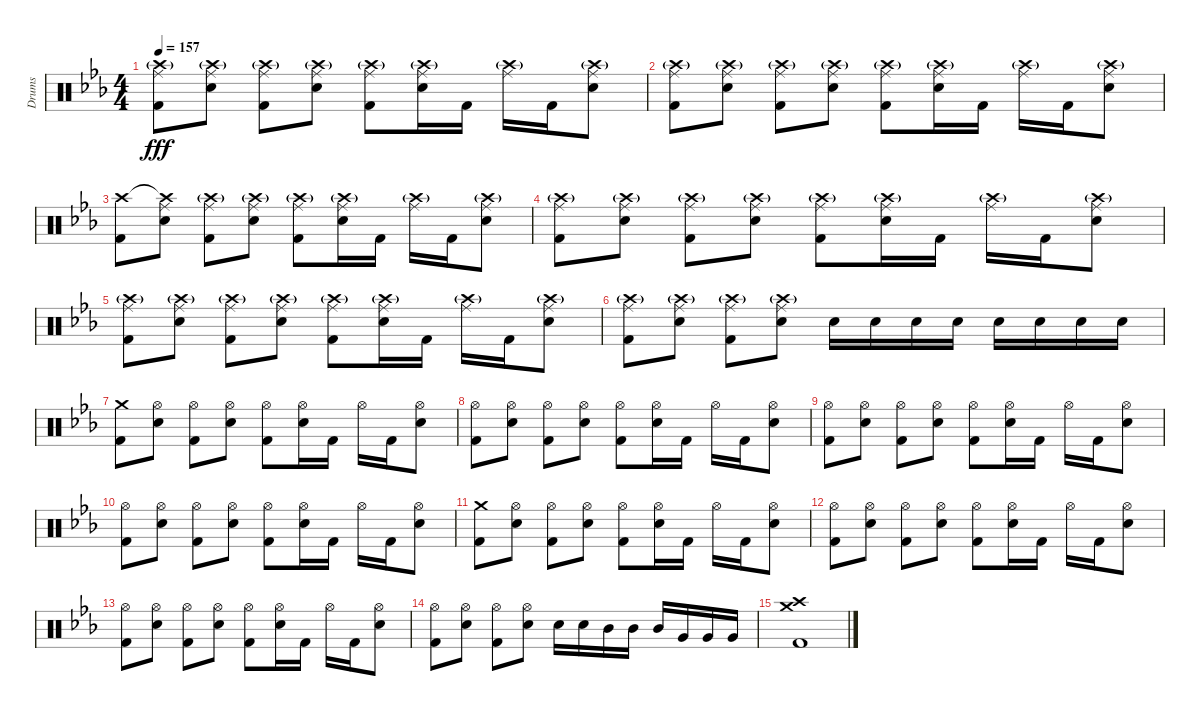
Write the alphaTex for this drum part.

\track ("Drums" "Drums") {instrument percussion}
\staff {score}
\articulation defaults
\ts (4 4)
\tempo 157
\clef neutral
\ks eb
("Crash high (hit)"{g} "Ride (middle)" "Kick (hit) 2").8{dy fff} ("Crash high (hit)"{g} "Ride (middle)" "Snare (hit) 2").8 ("Crash high (hit)"{g} "Ride (middle)" "Kick (hit) 2").8 ("Crash high (hit)"{g} "Ride (middle)" "Snare (hit) 2").8 ("Crash high (hit)"{g} "Ride (middle)" "Kick (hit) 2").8 ("Crash high (hit)"{g} "Ride (middle)" "Snare (hit) 2").16 "Kick (hit) 2".16 ("Crash high (hit)"{g} "Ride (middle)").16 "Kick (hit) 2".16 ("Crash high (hit)"{g} "Ride (middle)" "Snare (hit) 2").8 |
("Crash high (hit)"{g} "Ride (middle)" "Kick (hit) 2").8 ("Crash high (hit)"{g} "Ride (middle)" "Snare (hit) 2").8 ("Crash high (hit)"{g} "Ride (middle)" "Kick (hit) 2").8 ("Crash high (hit)"{g} "Ride (middle)" "Snare (hit) 2").8 ("Crash high (hit)"{g} "Ride (middle)" "Kick (hit) 2").8 ("Crash high (hit)"{g} "Ride (middle)" "Snare (hit) 2").16 "Kick (hit) 2".16 ("Crash high (hit)"{g} "Ride (middle)").16 "Kick (hit) 2".16 ("Crash high (hit)"{g} "Ride (middle)" "Snare (hit) 2").8 |
("Crash high (hit)" "Kick (hit) 2").8 ("Crash high (hit)"{t} "Ride (middle)" "Snare (hit) 2").8 ("Crash high (hit)"{g} "Ride (middle)" "Kick (hit) 2").8 ("Crash high (hit)"{g} "Ride (middle)" "Snare (hit) 2").8 ("Crash high (hit)"{g} "Ride (middle)" "Kick (hit) 2").8 ("Crash high (hit)"{g} "Ride (middle)" "Snare (hit) 2").16 "Kick (hit) 2".16 ("Crash high (hit)"{g} "Ride (middle)").16 "Kick (hit) 2".16 ("Crash high (hit)"{g} "Ride (middle)" "Snare (hit) 2").8 |
("Crash high (hit)"{g} "Ride (middle)" "Kick (hit) 2").8 ("Crash high (hit)"{g} "Ride (middle)" "Snare (hit) 2").8 ("Crash high (hit)"{g} "Ride (middle)" "Kick (hit) 2").8 ("Crash high (hit)"{g} "Ride (middle)" "Snare (hit) 2").8 ("Crash high (hit)"{g} "Ride (middle)" "Kick (hit) 2").8 ("Crash high (hit)"{g} "Ride (middle)" "Snare (hit) 2").16 "Kick (hit) 2".16 ("Crash high (hit)"{g} "Ride (middle)").16 "Kick (hit) 2".16 ("Crash high (hit)"{g} "Ride (middle)" "Snare (hit) 2").8 |
("Crash high (hit)"{g} "Ride (middle)" "Kick (hit) 2").8 ("Crash high (hit)"{g} "Ride (middle)" "Snare (hit) 2").8 ("Crash high (hit)"{g} "Ride (middle)" "Kick (hit) 2").8 ("Crash high (hit)"{g} "Ride (middle)" "Snare (hit) 2").8 ("Crash high (hit)"{g} "Ride (middle)" "Kick (hit) 2").8 ("Crash high (hit)"{g} "Ride (middle)" "Snare (hit) 2").16 "Kick (hit) 2".16 ("Crash high (hit)"{g} "Ride (middle)").16 "Kick (hit) 2".16 ("Crash high (hit)"{g} "Ride (middle)" "Snare (hit) 2").8 |
("Crash high (hit)"{g} "Ride (middle)" "Kick (hit) 2").8 ("Crash high (hit)"{g} "Ride (middle)" "Snare (hit) 2").8 ("Crash high (hit)"{g} "Ride (middle)" "Kick (hit) 2").8 ("Crash high (hit)"{g} "Ride (middle)" "Snare (hit) 2").8 "Snare (hit) 2".16 "Snare (hit) 2".16 "Snare (hit) 2".16 "Snare (hit) 2".16 "Snare (hit) 2".16 "Snare (hit) 2".16 "Snare (hit) 2".16 "Snare (hit) 2".16 |
("Crash medium (hit)" "Kick (hit) 2").8 ("Hi-Hat (open)" "Snare (hit) 2").8 ("Hi-Hat (open)" "Kick (hit) 2").8 ("Hi-Hat (open)" "Snare (hit) 2").8 ("Hi-Hat (open)" "Kick (hit) 2").8 ("Hi-Hat (open)" "Snare (hit) 2").16 "Kick (hit) 2".16 "Hi-Hat (open)".16 "Kick (hit) 2".16 ("Hi-Hat (open)" "Snare (hit) 2").8 |
("Hi-Hat (open)" "Kick (hit) 2").8 ("Hi-Hat (open)" "Snare (hit) 2").8 ("Hi-Hat (open)" "Kick (hit) 2").8 ("Hi-Hat (open)" "Snare (hit) 2").8 ("Hi-Hat (open)" "Kick (hit) 2").8 ("Hi-Hat (open)" "Snare (hit) 2").16 "Kick (hit) 2".16 "Hi-Hat (open)".16 "Kick (hit) 2".16 ("Hi-Hat (open)" "Snare (hit) 2").8 |
("Hi-Hat (open)" "Kick (hit) 2").8 ("Hi-Hat (open)" "Snare (hit) 2").8 ("Hi-Hat (open)" "Kick (hit) 2").8 ("Hi-Hat (open)" "Snare (hit) 2").8 ("Hi-Hat (open)" "Kick (hit) 2").8 ("Hi-Hat (open)" "Snare (hit) 2").16 "Kick (hit) 2".16 "Hi-Hat (open)".16 "Kick (hit) 2".16 ("Hi-Hat (open)" "Snare (hit) 2").8 |
("Hi-Hat (open)" "Kick (hit) 2").8 ("Hi-Hat (open)" "Snare (hit) 2").8 ("Hi-Hat (open)" "Kick (hit) 2").8 ("Hi-Hat (open)" "Snare (hit) 2").8 ("Hi-Hat (open)" "Kick (hit) 2").8 ("Hi-Hat (open)" "Snare (hit) 2").16 "Kick (hit) 2".16 "Hi-Hat (open)".16 "Kick (hit) 2".16 ("Hi-Hat (open)" "Snare (hit) 2").8 |
("Crash medium (hit)" "Kick (hit) 2").8 ("Hi-Hat (open)" "Snare (hit) 2").8 ("Hi-Hat (open)" "Kick (hit) 2").8 ("Hi-Hat (open)" "Snare (hit) 2").8 ("Hi-Hat (open)" "Kick (hit) 2").8 ("Hi-Hat (open)" "Snare (hit) 2").16 "Kick (hit) 2".16 "Hi-Hat (open)".16 "Kick (hit) 2".16 ("Hi-Hat (open)" "Snare (hit) 2").8 |
("Hi-Hat (open)" "Kick (hit) 2").8 ("Hi-Hat (open)" "Snare (hit) 2").8 ("Hi-Hat (open)" "Kick (hit) 2").8 ("Hi-Hat (open)" "Snare (hit) 2").8 ("Hi-Hat (open)" "Kick (hit) 2").8 ("Hi-Hat (open)" "Snare (hit) 2").16 "Kick (hit) 2".16 "Hi-Hat (open)".16 "Kick (hit) 2".16 ("Hi-Hat (open)" "Snare (hit) 2").8 |
("Hi-Hat (open)" "Kick (hit) 2").8 ("Hi-Hat (open)" "Snare (hit) 2").8 ("Hi-Hat (open)" "Kick (hit) 2").8 ("Hi-Hat (open)" "Snare (hit) 2").8 ("Hi-Hat (open)" "Kick (hit) 2").8 ("Hi-Hat (open)" "Snare (hit) 2").16 "Kick (hit) 2".16 "Hi-Hat (open)".16 "Kick (hit) 2".16 ("Hi-Hat (open)" "Snare (hit) 2").8 |
("Hi-Hat (open)" "Kick (hit) 2").8 ("Hi-Hat (open)" "Snare (hit) 2").8 ("Hi-Hat (open)" "Kick (hit) 2").8 ("Hi-Hat (open)" "Snare (hit) 2").8 "Snare (hit) 2".16 "Snare (hit) 2".16 "Mid Tom (hit)".16 "Mid Tom (hit)".16 "Mid Tom (hit)".16 "Very Low Tom (hit)".16 "Very Low Tom (hit)".16 "Very Low Tom (hit)".16 |
("Crash high (hit)" "Crash medium (hit)" "Kick (hit) 2").1
